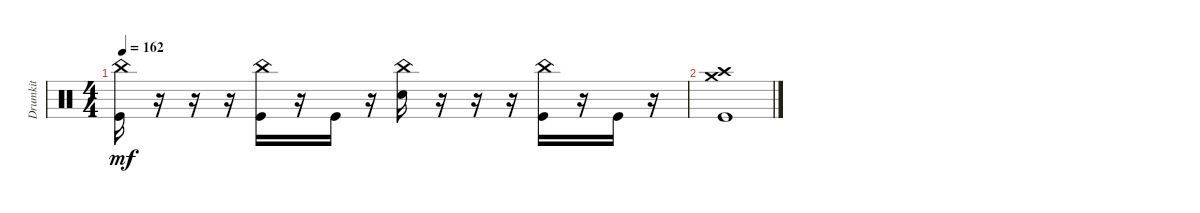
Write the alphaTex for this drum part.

\track ("Drumkit" "Drumkit") {instrument percussion}
\staff {score}
\articulation defaults
\ts (4 4)
\tempo 162
\clef neutral
\ks c
("Kick (hit)" "China (hit)").16{dy mf} r.16 r.16 r.16 ("Kick (hit)" "China (hit)").16 r.16 "Kick (hit)".16 r.16 ("Snare (hit) 2" "China (hit)").16 r.16 r.16 r.16 ("Kick (hit)" "China (hit)").16 r.16 "Kick (hit)".16 r.16 |
("Kick (hit)" "Crash high (hit)" "Crash medium (hit)").1
